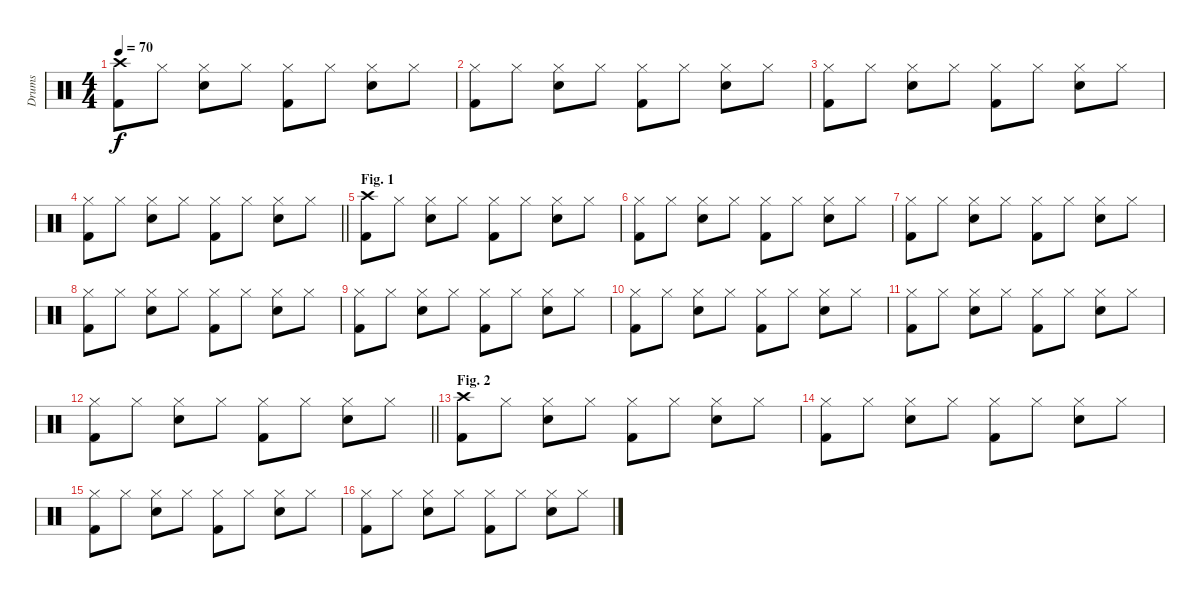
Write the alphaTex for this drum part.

\track ("Drums" "Drums") {instrument percussion}
\staff {score}
\articulation defaults
\ts (4 4)
\tempo 70
\clef neutral
\ks c
("Crash high (hit)" "Kick (hit) 2").8{dy f} "Hi-Hat (closed)".8 ("Hi-Hat (closed)" "Snare (hit) 2").8 "Hi-Hat (closed)".8 ("Hi-Hat (closed)" "Kick (hit) 2").8 "Hi-Hat (closed)".8 ("Hi-Hat (closed)" "Snare (hit) 2").8 "Hi-Hat (closed)".8 |
("Hi-Hat (closed)" "Kick (hit) 2").8 "Hi-Hat (closed)".8 ("Hi-Hat (closed)" "Snare (hit) 2").8 "Hi-Hat (closed)".8 ("Hi-Hat (closed)" "Kick (hit) 2").8 "Hi-Hat (closed)".8 ("Hi-Hat (closed)" "Snare (hit) 2").8 "Hi-Hat (closed)".8 |
("Hi-Hat (closed)" "Kick (hit) 2").8 "Hi-Hat (closed)".8 ("Hi-Hat (closed)" "Snare (hit) 2").8 "Hi-Hat (closed)".8 ("Hi-Hat (closed)" "Kick (hit) 2").8 "Hi-Hat (closed)".8 ("Hi-Hat (closed)" "Snare (hit) 2").8 "Hi-Hat (closed)".8 |
\barLineRight lightlight
("Hi-Hat (closed)" "Kick (hit) 2").8 "Hi-Hat (closed)".8 ("Hi-Hat (closed)" "Snare (hit) 2").8 "Hi-Hat (closed)".8 ("Hi-Hat (closed)" "Kick (hit) 2").8 "Hi-Hat (closed)".8 ("Hi-Hat (closed)" "Snare (hit) 2").8 "Hi-Hat (closed)".8 |
\section ("" "Fig. 1")
("Crash high (hit)" "Kick (hit) 2").8 "Hi-Hat (closed)".8 ("Hi-Hat (closed)" "Snare (hit) 2").8 "Hi-Hat (closed)".8 ("Hi-Hat (closed)" "Kick (hit) 2").8 "Hi-Hat (closed)".8 ("Hi-Hat (closed)" "Snare (hit) 2").8 "Hi-Hat (closed)".8 |
("Hi-Hat (closed)" "Kick (hit) 2").8 "Hi-Hat (closed)".8 ("Hi-Hat (closed)" "Snare (hit) 2").8 "Hi-Hat (closed)".8 ("Hi-Hat (closed)" "Kick (hit) 2").8 "Hi-Hat (closed)".8 ("Hi-Hat (closed)" "Snare (hit) 2").8 "Hi-Hat (closed)".8 |
("Hi-Hat (closed)" "Kick (hit) 2").8 "Hi-Hat (closed)".8 ("Hi-Hat (closed)" "Snare (hit) 2").8 "Hi-Hat (closed)".8 ("Hi-Hat (closed)" "Kick (hit) 2").8 "Hi-Hat (closed)".8 ("Hi-Hat (closed)" "Snare (hit) 2").8 "Hi-Hat (closed)".8 |
("Hi-Hat (closed)" "Kick (hit) 2").8 "Hi-Hat (closed)".8 ("Hi-Hat (closed)" "Snare (hit) 2").8 "Hi-Hat (closed)".8 ("Hi-Hat (closed)" "Kick (hit) 2").8 "Hi-Hat (closed)".8 ("Hi-Hat (closed)" "Snare (hit) 2").8 "Hi-Hat (closed)".8 |
("Hi-Hat (closed)" "Kick (hit) 2").8 "Hi-Hat (closed)".8 ("Hi-Hat (closed)" "Snare (hit) 2").8 "Hi-Hat (closed)".8 ("Hi-Hat (closed)" "Kick (hit) 2").8 "Hi-Hat (closed)".8 ("Hi-Hat (closed)" "Snare (hit) 2").8 "Hi-Hat (closed)".8 |
("Hi-Hat (closed)" "Kick (hit) 2").8 "Hi-Hat (closed)".8 ("Hi-Hat (closed)" "Snare (hit) 2").8 "Hi-Hat (closed)".8 ("Hi-Hat (closed)" "Kick (hit) 2").8 "Hi-Hat (closed)".8 ("Hi-Hat (closed)" "Snare (hit) 2").8 "Hi-Hat (closed)".8 |
("Hi-Hat (closed)" "Kick (hit) 2").8 "Hi-Hat (closed)".8 ("Hi-Hat (closed)" "Snare (hit) 2").8 "Hi-Hat (closed)".8 ("Hi-Hat (closed)" "Kick (hit) 2").8 "Hi-Hat (closed)".8 ("Hi-Hat (closed)" "Snare (hit) 2").8 "Hi-Hat (closed)".8 |
\barLineRight lightlight
("Hi-Hat (closed)" "Kick (hit) 2").8 "Hi-Hat (closed)".8 ("Hi-Hat (closed)" "Snare (hit) 2").8 "Hi-Hat (closed)".8 ("Hi-Hat (closed)" "Kick (hit) 2").8 "Hi-Hat (closed)".8 ("Hi-Hat (closed)" "Snare (hit) 2").8 "Hi-Hat (closed)".8 |
\section ("" "Fig. 2")
("Crash high (hit)" "Kick (hit) 2").8 "Hi-Hat (closed)".8 ("Hi-Hat (closed)" "Snare (hit) 2").8 "Hi-Hat (closed)".8 ("Hi-Hat (closed)" "Kick (hit) 2").8 "Hi-Hat (closed)".8 ("Hi-Hat (closed)" "Snare (hit) 2").8 "Hi-Hat (closed)".8 |
("Hi-Hat (closed)" "Kick (hit) 2").8 "Hi-Hat (closed)".8 ("Hi-Hat (closed)" "Snare (hit) 2").8 "Hi-Hat (closed)".8 ("Hi-Hat (closed)" "Kick (hit) 2").8 "Hi-Hat (closed)".8 ("Hi-Hat (closed)" "Snare (hit) 2").8 "Hi-Hat (closed)".8 |
("Hi-Hat (closed)" "Kick (hit) 2").8 "Hi-Hat (closed)".8 ("Hi-Hat (closed)" "Snare (hit) 2").8 "Hi-Hat (closed)".8 ("Hi-Hat (closed)" "Kick (hit) 2").8 "Hi-Hat (closed)".8 ("Hi-Hat (closed)" "Snare (hit) 2").8 "Hi-Hat (closed)".8 |
("Hi-Hat (closed)" "Kick (hit) 2").8 "Hi-Hat (closed)".8 ("Hi-Hat (closed)" "Snare (hit) 2").8 "Hi-Hat (closed)".8 ("Hi-Hat (closed)" "Kick (hit) 2").8 "Hi-Hat (closed)".8 ("Hi-Hat (closed)" "Snare (hit) 2").8 "Hi-Hat (closed)".8
